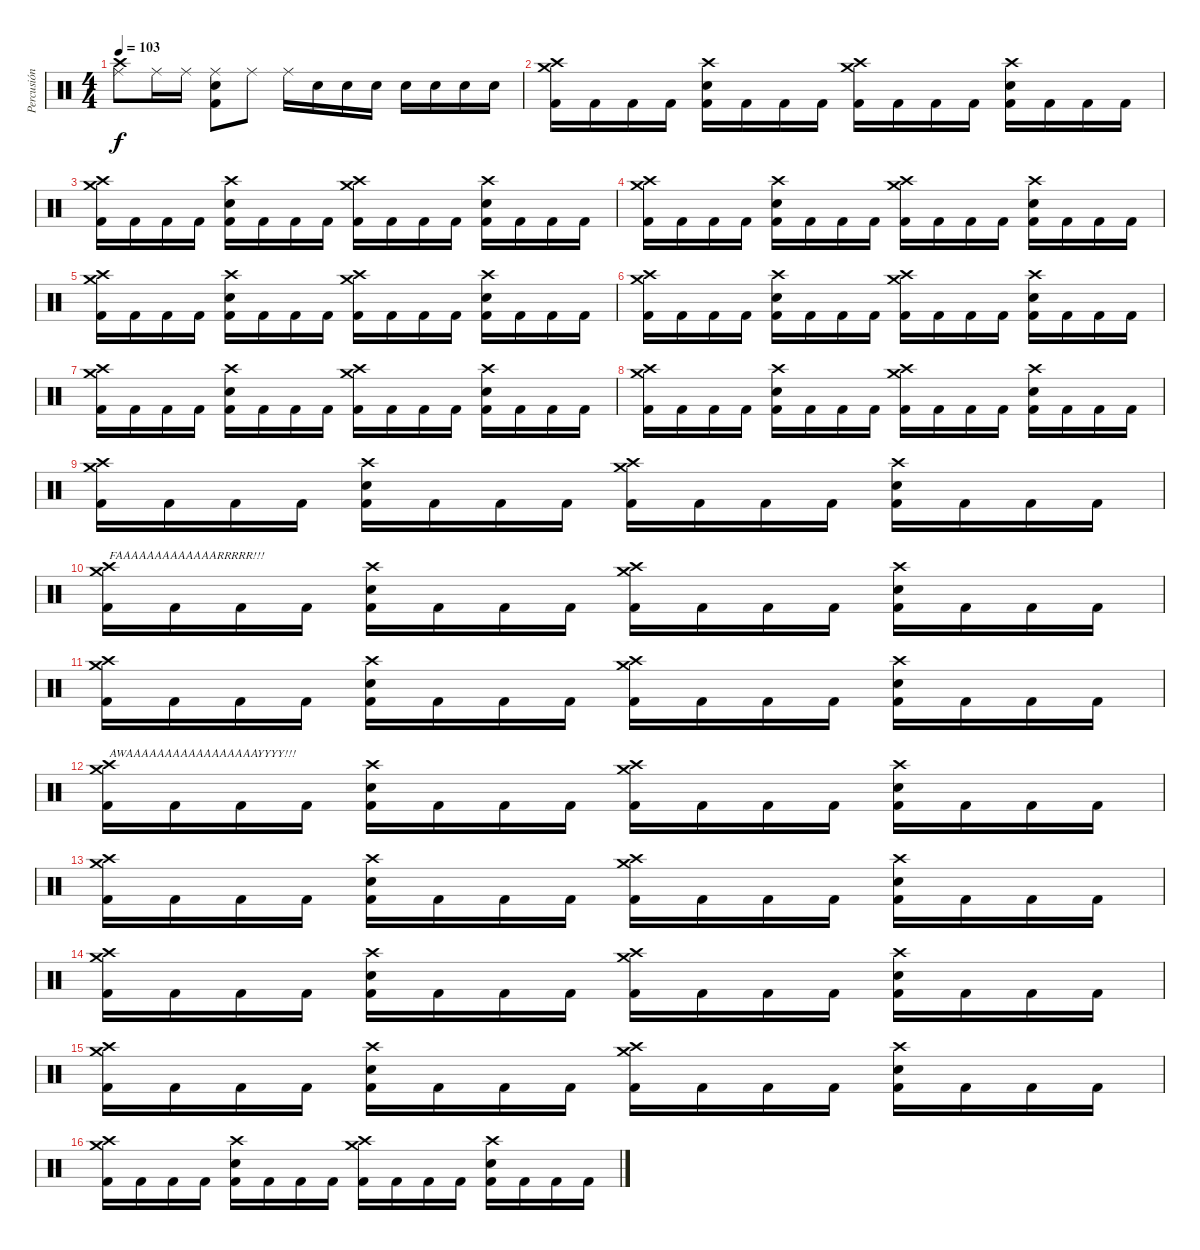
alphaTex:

\track ("Percusión" "Percusión") {instrument percussion}
\staff {score}
\articulation defaults
\ts (4 4)
\tempo 103
\clef neutral
\ks c
("Ride (middle)" "Crash high (hit)").8{dy f} "Ride (middle)".16 "Ride (middle)".16 ("Ride (middle)" "Snare (hit) 2" "Kick (hit) 2").8 "Ride (middle)".8 "Ride (middle)".16 "Snare (hit) 2".16 "Snare (hit) 2".16 "Snare (hit) 2".16 "Snare (hit) 2".16 "Snare (hit) 2".16 "Snare (hit) 2".16 "Snare (hit) 2".16 |
("Crash high (hit)" "Crash medium (hit)" "Kick (hit) 2").16 "Kick (hit) 2".16 "Kick (hit) 2".16 "Kick (hit) 2".16 ("Snare (hit) 2" "Crash high (hit)" "Kick (hit) 2").16 "Kick (hit) 2".16 "Kick (hit) 2".16 "Kick (hit) 2".16 ("Crash high (hit)" "Crash medium (hit)" "Kick (hit) 2").16 "Kick (hit) 2".16 "Kick (hit) 2".16 "Kick (hit) 2".16 ("Snare (hit) 2" "Crash high (hit)" "Kick (hit) 2").16 "Kick (hit) 2".16 "Kick (hit) 2".16 "Kick (hit) 2".16 |
("Crash high (hit)" "Crash medium (hit)" "Kick (hit) 2").16 "Kick (hit) 2".16 "Kick (hit) 2".16 "Kick (hit) 2".16 ("Snare (hit) 2" "Crash high (hit)" "Kick (hit) 2").16 "Kick (hit) 2".16 "Kick (hit) 2".16 "Kick (hit) 2".16 ("Crash high (hit)" "Crash medium (hit)" "Kick (hit) 2").16 "Kick (hit) 2".16 "Kick (hit) 2".16 "Kick (hit) 2".16 ("Snare (hit) 2" "Crash high (hit)" "Kick (hit) 2").16 "Kick (hit) 2".16 "Kick (hit) 2".16 "Kick (hit) 2".16 |
("Crash high (hit)" "Crash medium (hit)" "Kick (hit) 2").16 "Kick (hit) 2".16 "Kick (hit) 2".16 "Kick (hit) 2".16 ("Snare (hit) 2" "Crash high (hit)" "Kick (hit) 2").16 "Kick (hit) 2".16 "Kick (hit) 2".16 "Kick (hit) 2".16 ("Crash high (hit)" "Crash medium (hit)" "Kick (hit) 2").16 "Kick (hit) 2".16 "Kick (hit) 2".16 "Kick (hit) 2".16 ("Snare (hit) 2" "Crash high (hit)" "Kick (hit) 2").16 "Kick (hit) 2".16 "Kick (hit) 2".16 "Kick (hit) 2".16 |
("Crash high (hit)" "Crash medium (hit)" "Kick (hit) 2").16 "Kick (hit) 2".16 "Kick (hit) 2".16 "Kick (hit) 2".16 ("Snare (hit) 2" "Crash high (hit)" "Kick (hit) 2").16 "Kick (hit) 2".16 "Kick (hit) 2".16 "Kick (hit) 2".16 ("Crash high (hit)" "Crash medium (hit)" "Kick (hit) 2").16 "Kick (hit) 2".16 "Kick (hit) 2".16 "Kick (hit) 2".16 ("Snare (hit) 2" "Crash high (hit)" "Kick (hit) 2").16 "Kick (hit) 2".16 "Kick (hit) 2".16 "Kick (hit) 2".16 |
("Crash high (hit)" "Crash medium (hit)" "Kick (hit) 2").16 "Kick (hit) 2".16 "Kick (hit) 2".16 "Kick (hit) 2".16 ("Snare (hit) 2" "Crash high (hit)" "Kick (hit) 2").16 "Kick (hit) 2".16 "Kick (hit) 2".16 "Kick (hit) 2".16 ("Crash high (hit)" "Crash medium (hit)" "Kick (hit) 2").16 "Kick (hit) 2".16 "Kick (hit) 2".16 "Kick (hit) 2".16 ("Snare (hit) 2" "Crash high (hit)" "Kick (hit) 2").16 "Kick (hit) 2".16 "Kick (hit) 2".16 "Kick (hit) 2".16 |
("Crash high (hit)" "Crash medium (hit)" "Kick (hit) 2").16 "Kick (hit) 2".16 "Kick (hit) 2".16 "Kick (hit) 2".16 ("Snare (hit) 2" "Crash high (hit)" "Kick (hit) 2").16 "Kick (hit) 2".16 "Kick (hit) 2".16 "Kick (hit) 2".16 ("Crash high (hit)" "Crash medium (hit)" "Kick (hit) 2").16 "Kick (hit) 2".16 "Kick (hit) 2".16 "Kick (hit) 2".16 ("Snare (hit) 2" "Crash high (hit)" "Kick (hit) 2").16 "Kick (hit) 2".16 "Kick (hit) 2".16 "Kick (hit) 2".16 |
("Crash high (hit)" "Crash medium (hit)" "Kick (hit) 2").16 "Kick (hit) 2".16 "Kick (hit) 2".16 "Kick (hit) 2".16 ("Snare (hit) 2" "Crash high (hit)" "Kick (hit) 2").16 "Kick (hit) 2".16 "Kick (hit) 2".16 "Kick (hit) 2".16 ("Crash high (hit)" "Crash medium (hit)" "Kick (hit) 2").16 "Kick (hit) 2".16 "Kick (hit) 2".16 "Kick (hit) 2".16 ("Snare (hit) 2" "Crash high (hit)" "Kick (hit) 2").16 "Kick (hit) 2".16 "Kick (hit) 2".16 "Kick (hit) 2".16 |
("Crash high (hit)" "Crash medium (hit)" "Kick (hit) 2").16 "Kick (hit) 2".16 "Kick (hit) 2".16 "Kick (hit) 2".16 ("Snare (hit) 2" "Crash high (hit)" "Kick (hit) 2").16 "Kick (hit) 2".16 "Kick (hit) 2".16 "Kick (hit) 2".16 ("Crash high (hit)" "Crash medium (hit)" "Kick (hit) 2").16 "Kick (hit) 2".16 "Kick (hit) 2".16 "Kick (hit) 2".16 ("Snare (hit) 2" "Crash high (hit)" "Kick (hit) 2").16 "Kick (hit) 2".16 "Kick (hit) 2".16 "Kick (hit) 2".16 |
("Crash high (hit)" "Crash medium (hit)" "Kick (hit) 2").16{txt "FAAAAAAAAAAAAARRRRR!!!"} "Kick (hit) 2".16 "Kick (hit) 2".16 "Kick (hit) 2".16 ("Snare (hit) 2" "Crash high (hit)" "Kick (hit) 2").16 "Kick (hit) 2".16 "Kick (hit) 2".16 "Kick (hit) 2".16 ("Crash high (hit)" "Crash medium (hit)" "Kick (hit) 2").16 "Kick (hit) 2".16 "Kick (hit) 2".16 "Kick (hit) 2".16 ("Snare (hit) 2" "Crash high (hit)" "Kick (hit) 2").16 "Kick (hit) 2".16 "Kick (hit) 2".16 "Kick (hit) 2".16 |
("Crash high (hit)" "Crash medium (hit)" "Kick (hit) 2").16 "Kick (hit) 2".16 "Kick (hit) 2".16 "Kick (hit) 2".16 ("Snare (hit) 2" "Crash high (hit)" "Kick (hit) 2").16 "Kick (hit) 2".16 "Kick (hit) 2".16 "Kick (hit) 2".16 ("Crash high (hit)" "Crash medium (hit)" "Kick (hit) 2").16 "Kick (hit) 2".16 "Kick (hit) 2".16 "Kick (hit) 2".16 ("Snare (hit) 2" "Crash high (hit)" "Kick (hit) 2").16 "Kick (hit) 2".16 "Kick (hit) 2".16 "Kick (hit) 2".16 |
("Crash high (hit)" "Crash medium (hit)" "Kick (hit) 2").16{txt "AWAAAAAAAAAAAAAAAAAYYYY!!!"} "Kick (hit) 2".16 "Kick (hit) 2".16 "Kick (hit) 2".16 ("Snare (hit) 2" "Crash high (hit)" "Kick (hit) 2").16 "Kick (hit) 2".16 "Kick (hit) 2".16 "Kick (hit) 2".16 ("Crash high (hit)" "Crash medium (hit)" "Kick (hit) 2").16 "Kick (hit) 2".16 "Kick (hit) 2".16 "Kick (hit) 2".16 ("Snare (hit) 2" "Crash high (hit)" "Kick (hit) 2").16 "Kick (hit) 2".16 "Kick (hit) 2".16 "Kick (hit) 2".16 |
("Crash high (hit)" "Crash medium (hit)" "Kick (hit) 2").16 "Kick (hit) 2".16 "Kick (hit) 2".16 "Kick (hit) 2".16 ("Snare (hit) 2" "Crash high (hit)" "Kick (hit) 2").16 "Kick (hit) 2".16 "Kick (hit) 2".16 "Kick (hit) 2".16 ("Crash high (hit)" "Crash medium (hit)" "Kick (hit) 2").16 "Kick (hit) 2".16 "Kick (hit) 2".16 "Kick (hit) 2".16 ("Snare (hit) 2" "Crash high (hit)" "Kick (hit) 2").16 "Kick (hit) 2".16 "Kick (hit) 2".16 "Kick (hit) 2".16 |
("Crash high (hit)" "Crash medium (hit)" "Kick (hit) 2").16 "Kick (hit) 2".16 "Kick (hit) 2".16 "Kick (hit) 2".16 ("Snare (hit) 2" "Crash high (hit)" "Kick (hit) 2").16 "Kick (hit) 2".16 "Kick (hit) 2".16 "Kick (hit) 2".16 ("Crash high (hit)" "Crash medium (hit)" "Kick (hit) 2").16 "Kick (hit) 2".16 "Kick (hit) 2".16 "Kick (hit) 2".16 ("Snare (hit) 2" "Crash high (hit)" "Kick (hit) 2").16 "Kick (hit) 2".16 "Kick (hit) 2".16 "Kick (hit) 2".16 |
("Crash high (hit)" "Crash medium (hit)" "Kick (hit) 2").16 "Kick (hit) 2".16 "Kick (hit) 2".16 "Kick (hit) 2".16 ("Snare (hit) 2" "Crash high (hit)" "Kick (hit) 2").16 "Kick (hit) 2".16 "Kick (hit) 2".16 "Kick (hit) 2".16 ("Crash high (hit)" "Crash medium (hit)" "Kick (hit) 2").16 "Kick (hit) 2".16 "Kick (hit) 2".16 "Kick (hit) 2".16 ("Snare (hit) 2" "Crash high (hit)" "Kick (hit) 2").16 "Kick (hit) 2".16 "Kick (hit) 2".16 "Kick (hit) 2".16 |
("Crash high (hit)" "Crash medium (hit)" "Kick (hit) 2").16 "Kick (hit) 2".16 "Kick (hit) 2".16 "Kick (hit) 2".16 ("Snare (hit) 2" "Crash high (hit)" "Kick (hit) 2").16 "Kick (hit) 2".16 "Kick (hit) 2".16 "Kick (hit) 2".16 ("Crash high (hit)" "Crash medium (hit)" "Kick (hit) 2").16 "Kick (hit) 2".16 "Kick (hit) 2".16 "Kick (hit) 2".16 ("Snare (hit) 2" "Crash high (hit)" "Kick (hit) 2").16 "Kick (hit) 2".16 "Kick (hit) 2".16 "Kick (hit) 2".16
